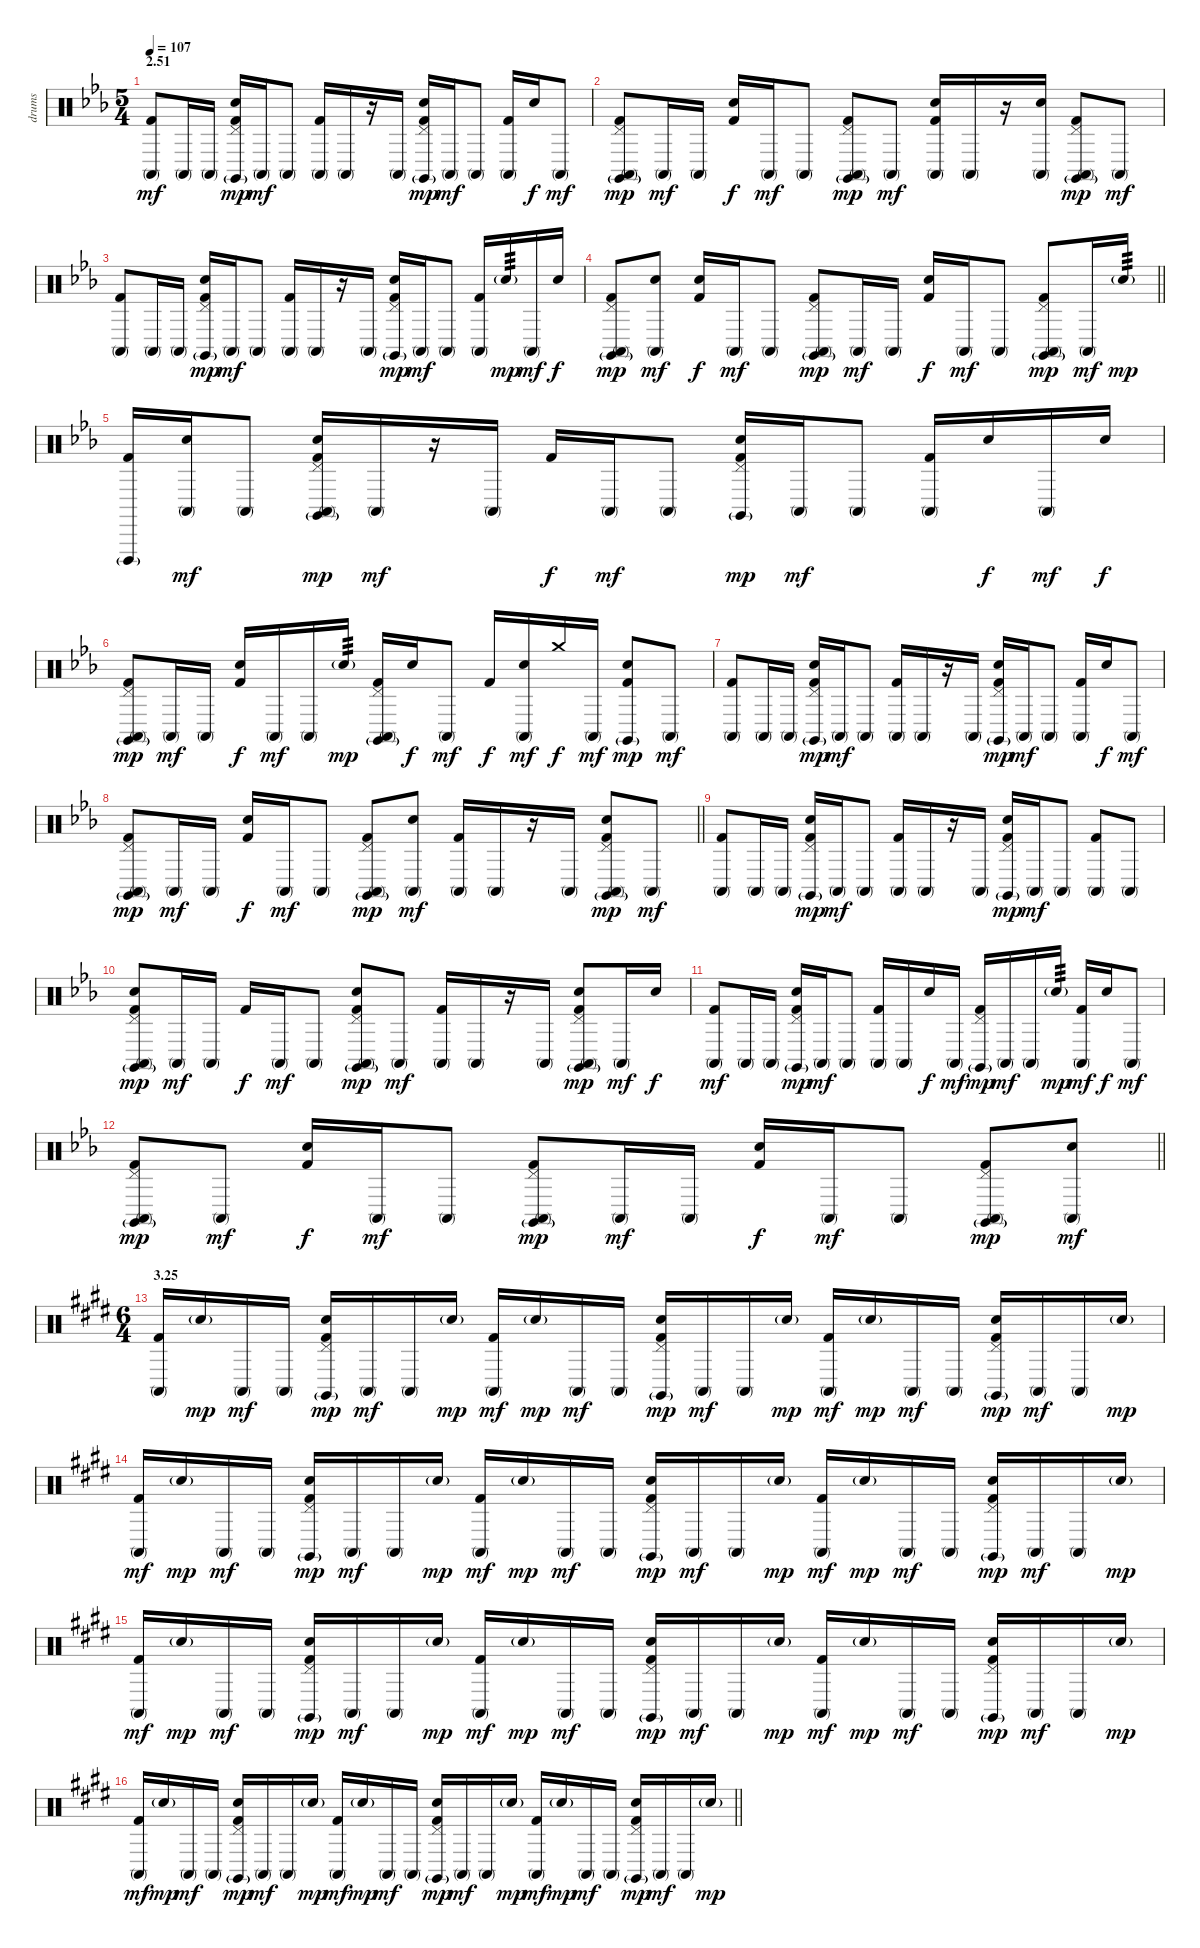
\track ("drums" "drums") {instrument percussion}
\staff {score}
\articulation defaults
\ts (5 4)
\section ("" "2.51")
\tempo 107
\clef neutral
\ks eb
("Conga high (mute)" "Kick (hit) 2").8{dy mf} "Conga high (mute)".16 "Conga high (mute)".16 ("Pedal Hi-Hat (hit)" "Claves (hit)"{g} "Electric Snare (hit)" "Kick (hit) 2").16{dy mp} "Conga high (mute)".16{dy mf} "Conga high (mute)".8 ("Conga high (mute)" "Kick (hit) 2").16 "Conga high (mute)".16 r.16 "Conga high (mute)".16 ("Pedal Hi-Hat (hit)" "Claves (hit)"{g} "Electric Snare (hit)" "Kick (hit) 2").16{dy mp} "Conga high (mute)".16{dy mf} "Conga high (mute)".8 ("Conga high (mute)" "Kick (hit) 2").16 "Electric Snare (hit)".16{dy f} "Conga high (mute)".8{dy mf} |
("Pedal Hi-Hat (hit)" "Conga high (mute)" "Claves (hit)"{g} "Kick (hit) 2").8{dy mp} "Conga high (mute)".16{dy mf} "Conga high (mute)".16 ("Electric Snare (hit)" "Kick (hit) 2").16{dy f} "Conga high (mute)".16{dy mf} "Conga high (mute)".8 ("Pedal Hi-Hat (hit)" "Conga high (mute)" "Claves (hit)"{g} "Kick (hit) 2").8{dy mp} "Conga high (mute)".8{dy mf} ("Conga high (mute)" "Electric Snare (hit)" "Kick (hit) 2").16 "Conga high (mute)".16 r.16 ("Conga high (mute)" "Electric Snare (hit)").16 ("Pedal Hi-Hat (hit)" "Conga high (mute)" "Claves (hit)"{g} "Kick (hit) 2").8{dy mp} "Conga high (mute)".8{dy mf} |
("Conga high (mute)" "Kick (hit) 2").8 "Conga high (mute)".16 "Conga high (mute)".16 ("Pedal Hi-Hat (hit)" "Claves (hit)"{g} "Electric Snare (hit)" "Kick (hit) 2").16{dy mp} "Conga high (mute)".16{dy mf} "Conga high (mute)".8 ("Conga high (mute)" "Kick (hit) 2").16 "Conga high (mute)".16 r.16 "Conga high (mute)".16 ("Pedal Hi-Hat (hit)" "Claves (hit)"{g} "Electric Snare (hit)" "Kick (hit) 2").16{dy mp} "Conga high (mute)".16{dy mf} "Conga high (mute)".8 ("Conga high (mute)" "Kick (hit) 2").16 "Electric Snare (hit)"{g}.16{tp 3 dy mp} "Conga high (mute)".16{dy mf} "Electric Snare (hit)".16{dy f} |
\barLineRight lightlight
("Pedal Hi-Hat (hit)" "Conga high (mute)" "Claves (hit)"{g} "Kick (hit) 2").8{dy mp} ("Conga high (mute)" "Electric Snare (hit)").8{dy mf} ("Electric Snare (hit)" "Kick (hit) 2").16{dy f} "Conga high (mute)".16{dy mf} "Conga high (mute)".8 ("Pedal Hi-Hat (hit)" "Conga high (mute)" "Claves (hit)"{g} "Kick (hit) 2").8{dy mp} "Conga high (mute)".16{dy mf} "Conga high (mute)".16 ("Electric Snare (hit)" "Kick (hit) 2").16{dy f} "Conga high (mute)".16{dy mf} "Conga high (mute)".8 ("Pedal Hi-Hat (hit)" "Conga high (mute)" "Claves (hit)"{g} "Kick (hit) 2").8{dy mp} "Conga high (mute)".16{dy mf} "Electric Snare (hit)"{g}.16{tp 3 dy mp} |
("Cuica (open)"{g} "Kick (hit) 2").16 ("Conga high (mute)" "Electric Snare (hit)").16{dy mf} "Conga high (mute)".8 ("Pedal Hi-Hat (hit)" "Conga high (mute)" "Claves (hit)"{g} "Electric Snare (hit)" "Kick (hit) 2").16{dy mp} "Conga high (mute)".16{dy mf} r.16 "Conga high (mute)".16 "Kick (hit) 2".16{dy f} "Conga high (mute)".16{dy mf} "Conga high (mute)".8 ("Pedal Hi-Hat (hit)" "Claves (hit)"{g} "Electric Snare (hit)" "Kick (hit) 2").16{dy mp} "Conga high (mute)".16{dy mf} "Conga high (mute)".8 ("Conga high (mute)" "Kick (hit) 2").16 "Electric Snare (hit)".16{dy f} "Conga high (mute)".16{dy mf} "Electric Snare (hit)".16{dy f} |
("Pedal Hi-Hat (hit)" "Conga high (mute)" "Claves (hit)"{g} "Kick (hit) 2").8{dy mp} "Conga high (mute)".16{dy mf} "Conga high (mute)".16 ("Electric Snare (hit)" "Kick (hit) 2").16{dy f} "Conga high (mute)".16{dy mf} "Conga high (mute)".16 "Electric Snare (hit)"{g}.16{tp 3 dy mp} ("Pedal Hi-Hat (hit)" "Conga high (mute)" "Claves (hit)"{g} "Kick (hit) 2").16 "Electric Snare (hit)".16{dy f} "Conga high (mute)".8{dy mf} "Kick (hit) 2".16{dy f} ("Conga high (mute)" "Electric Snare (hit)").16{dy mf} "Crash medium (hit)".16{dy f} "Conga high (mute)".16{dy mf} ("Claves (hit)"{g} "Electric Snare (hit)" "Kick (hit) 2").8{dy mp} "Conga high (mute)".8{dy mf} |
("Conga high (mute)" "Kick (hit) 2").8 "Conga high (mute)".16 "Conga high (mute)".16 ("Pedal Hi-Hat (hit)" "Claves (hit)"{g} "Electric Snare (hit)" "Kick (hit) 2").16{dy mp} "Conga high (mute)".16{dy mf} "Conga high (mute)".8 ("Conga high (mute)" "Kick (hit) 2").16 "Conga high (mute)".16 r.16 "Conga high (mute)".16 ("Pedal Hi-Hat (hit)" "Claves (hit)"{g} "Electric Snare (hit)" "Kick (hit) 2").16{dy mp} "Conga high (mute)".16{dy mf} "Conga high (mute)".8 ("Conga high (mute)" "Kick (hit) 2").16 "Electric Snare (hit)".16{dy f} "Conga high (mute)".8{dy mf} |
\barLineRight lightlight
("Pedal Hi-Hat (hit)" "Conga high (mute)" "Claves (hit)"{g} "Kick (hit) 2").8{dy mp} "Conga high (mute)".16{dy mf} "Conga high (mute)".16 ("Electric Snare (hit)" "Kick (hit) 2").16{dy f} "Conga high (mute)".16{dy mf} "Conga high (mute)".8 ("Pedal Hi-Hat (hit)" "Conga high (mute)" "Claves (hit)"{g} "Kick (hit) 2").8{dy mp} ("Conga high (mute)" "Electric Snare (hit)").8{dy mf} ("Conga high (mute)" "Kick (hit) 2").16 "Conga high (mute)".16 r.16 "Conga high (mute)".16 ("Pedal Hi-Hat (hit)" "Conga high (mute)" "Claves (hit)"{g} "Electric Snare (hit)" "Kick (hit) 2").8{dy mp} "Conga high (mute)".8{dy mf} |
("Conga high (mute)" "Kick (hit) 2").8 "Conga high (mute)".16 "Conga high (mute)".16 ("Pedal Hi-Hat (hit)" "Claves (hit)"{g} "Electric Snare (hit)" "Kick (hit) 2").16{dy mp} "Conga high (mute)".16{dy mf} "Conga high (mute)".8 ("Conga high (mute)" "Kick (hit) 2").16 "Conga high (mute)".16 r.16 "Conga high (mute)".16 ("Pedal Hi-Hat (hit)" "Claves (hit)"{g} "Electric Snare (hit)" "Kick (hit) 2").16{dy mp} "Conga high (mute)".16{dy mf} "Conga high (mute)".8 ("Conga high (mute)" "Kick (hit) 2").8 "Conga high (mute)".8 |
("Pedal Hi-Hat (hit)" "Conga high (mute)" "Claves (hit)"{g} "Electric Snare (hit)" "Kick (hit) 2").8{dy mp} "Conga high (mute)".16{dy mf} "Conga high (mute)".16 "Kick (hit) 2".16{dy f} "Conga high (mute)".16{dy mf} "Conga high (mute)".8 ("Pedal Hi-Hat (hit)" "Conga high (mute)" "Claves (hit)"{g} "Electric Snare (hit)" "Kick (hit) 2").8{dy mp} "Conga high (mute)".8{dy mf} ("Conga high (mute)" "Kick (hit) 2").16 "Conga high (mute)".16 r.16 "Conga high (mute)".16 ("Pedal Hi-Hat (hit)" "Conga high (mute)" "Claves (hit)"{g} "Electric Snare (hit)" "Kick (hit) 2").8{dy mp} "Conga high (mute)".16{dy mf} "Electric Snare (hit)".16{dy f} |
("Conga high (mute)" "Kick (hit) 2").8{dy mf} "Conga high (mute)".16 "Conga high (mute)".16 ("Pedal Hi-Hat (hit)" "Claves (hit)"{g} "Electric Snare (hit)" "Kick (hit) 2").16{dy mp} "Conga high (mute)".16{dy mf} "Conga high (mute)".8 ("Conga high (mute)" "Kick (hit) 2").16 "Conga high (mute)".16 "Electric Snare (hit)".16{dy f} "Conga high (mute)".16{dy mf} ("Pedal Hi-Hat (hit)" "Claves (hit)"{g} "Kick (hit) 2").16{dy mp} "Conga high (mute)".16{dy mf} "Conga high (mute)".16 "Electric Snare (hit)"{g}.16{tp 3 dy mp} ("Conga high (mute)" "Kick (hit) 2").16{dy mf} "Electric Snare (hit)".16{dy f} "Conga high (mute)".8{dy mf} |
\barLineRight lightlight
("Pedal Hi-Hat (hit)" "Conga high (mute)" "Claves (hit)"{g} "Kick (hit) 2").8{dy mp} "Conga high (mute)".8{dy mf} ("Electric Snare (hit)" "Kick (hit) 2").16{dy f} "Conga high (mute)".16{dy mf} "Conga high (mute)".8 ("Pedal Hi-Hat (hit)" "Conga high (mute)" "Claves (hit)"{g} "Kick (hit) 2").8{dy mp} "Conga high (mute)".16{dy mf} "Conga high (mute)".16 ("Electric Snare (hit)" "Kick (hit) 2").16{dy f} "Conga high (mute)".16{dy mf} "Conga high (mute)".8 ("Pedal Hi-Hat (hit)" "Conga high (mute)" "Claves (hit)"{g} "Kick (hit) 2").8{dy mp} ("Conga high (mute)" "Electric Snare (hit)").8{dy mf} |
\ts (6 4)
\section ("" "3.25")
\ks e
("Conga high (mute)" "Kick (hit) 2").16 "Electric Snare (hit)"{g}.16{dy mp} "Conga high (mute)".16{dy mf} "Conga high (mute)".16 ("Pedal Hi-Hat (hit)" "Claves (hit)"{g} "Electric Snare (hit)" "Kick (hit) 2").16{dy mp} "Conga high (mute)".16{dy mf} "Conga high (mute)".16 "Electric Snare (hit)"{g}.16{dy mp} ("Conga high (mute)" "Kick (hit) 2").16{dy mf} "Electric Snare (hit)"{g}.16{dy mp} "Conga high (mute)".16{dy mf} "Conga high (mute)".16 ("Pedal Hi-Hat (hit)" "Claves (hit)"{g} "Electric Snare (hit)" "Kick (hit) 2").16{dy mp} "Conga high (mute)".16{dy mf} "Conga high (mute)".16 "Electric Snare (hit)"{g}.16{dy mp} ("Conga high (mute)" "Kick (hit) 2").16{dy mf} "Electric Snare (hit)"{g}.16{dy mp} "Conga high (mute)".16{dy mf} "Conga high (mute)".16 ("Pedal Hi-Hat (hit)" "Claves (hit)"{g} "Electric Snare (hit)" "Kick (hit) 2").16{dy mp} "Conga high (mute)".16{dy mf} "Conga high (mute)".16 "Electric Snare (hit)"{g}.16{dy mp} |
("Conga high (mute)" "Kick (hit) 2").16{dy mf} "Electric Snare (hit)"{g}.16{dy mp} "Conga high (mute)".16{dy mf} "Conga high (mute)".16 ("Pedal Hi-Hat (hit)" "Claves (hit)"{g} "Electric Snare (hit)" "Kick (hit) 2").16{dy mp} "Conga high (mute)".16{dy mf} "Conga high (mute)".16 "Electric Snare (hit)"{g}.16{dy mp} ("Conga high (mute)" "Kick (hit) 2").16{dy mf} "Electric Snare (hit)"{g}.16{dy mp} "Conga high (mute)".16{dy mf} "Conga high (mute)".16 ("Pedal Hi-Hat (hit)" "Claves (hit)"{g} "Electric Snare (hit)" "Kick (hit) 2").16{dy mp} "Conga high (mute)".16{dy mf} "Conga high (mute)".16 "Electric Snare (hit)"{g}.16{dy mp} ("Conga high (mute)" "Kick (hit) 2").16{dy mf} "Electric Snare (hit)"{g}.16{dy mp} "Conga high (mute)".16{dy mf} "Conga high (mute)".16 ("Pedal Hi-Hat (hit)" "Claves (hit)"{g} "Electric Snare (hit)" "Kick (hit) 2").16{dy mp} "Conga high (mute)".16{dy mf} "Conga high (mute)".16 "Electric Snare (hit)"{g}.16{dy mp} |
("Conga high (mute)" "Kick (hit) 2").16{dy mf} "Electric Snare (hit)"{g}.16{dy mp} "Conga high (mute)".16{dy mf} "Conga high (mute)".16 ("Pedal Hi-Hat (hit)" "Claves (hit)"{g} "Electric Snare (hit)" "Kick (hit) 2").16{dy mp} "Conga high (mute)".16{dy mf} "Conga high (mute)".16 "Electric Snare (hit)"{g}.16{dy mp} ("Conga high (mute)" "Kick (hit) 2").16{dy mf} "Electric Snare (hit)"{g}.16{dy mp} "Conga high (mute)".16{dy mf} "Conga high (mute)".16 ("Pedal Hi-Hat (hit)" "Claves (hit)"{g} "Electric Snare (hit)" "Kick (hit) 2").16{dy mp} "Conga high (mute)".16{dy mf} "Conga high (mute)".16 "Electric Snare (hit)"{g}.16{dy mp} ("Conga high (mute)" "Kick (hit) 2").16{dy mf} "Electric Snare (hit)"{g}.16{dy mp} "Conga high (mute)".16{dy mf} "Conga high (mute)".16 ("Pedal Hi-Hat (hit)" "Claves (hit)"{g} "Electric Snare (hit)" "Kick (hit) 2").16{dy mp} "Conga high (mute)".16{dy mf} "Conga high (mute)".16 "Electric Snare (hit)"{g}.16{dy mp} |
\barLineRight lightlight
("Conga high (mute)" "Kick (hit) 2").16{dy mf} "Electric Snare (hit)"{g}.16{dy mp} "Conga high (mute)".16{dy mf} "Conga high (mute)".16 ("Pedal Hi-Hat (hit)" "Claves (hit)"{g} "Electric Snare (hit)" "Kick (hit) 2").16{dy mp} "Conga high (mute)".16{dy mf} "Conga high (mute)".16 "Electric Snare (hit)"{g}.16{dy mp} ("Conga high (mute)" "Kick (hit) 2").16{dy mf} "Electric Snare (hit)"{g}.16{dy mp} "Conga high (mute)".16{dy mf} "Conga high (mute)".16 ("Pedal Hi-Hat (hit)" "Claves (hit)"{g} "Electric Snare (hit)" "Kick (hit) 2").16{dy mp} "Conga high (mute)".16{dy mf} "Conga high (mute)".16 "Electric Snare (hit)"{g}.16{dy mp} ("Conga high (mute)" "Kick (hit) 2").16{dy mf} "Electric Snare (hit)"{g}.16{dy mp} "Conga high (mute)".16{dy mf} "Conga high (mute)".16 ("Pedal Hi-Hat (hit)" "Claves (hit)"{g} "Electric Snare (hit)" "Kick (hit) 2").16{dy mp} "Conga high (mute)".16{dy mf} "Conga high (mute)".16 "Electric Snare (hit)"{g}.16{dy mp}
